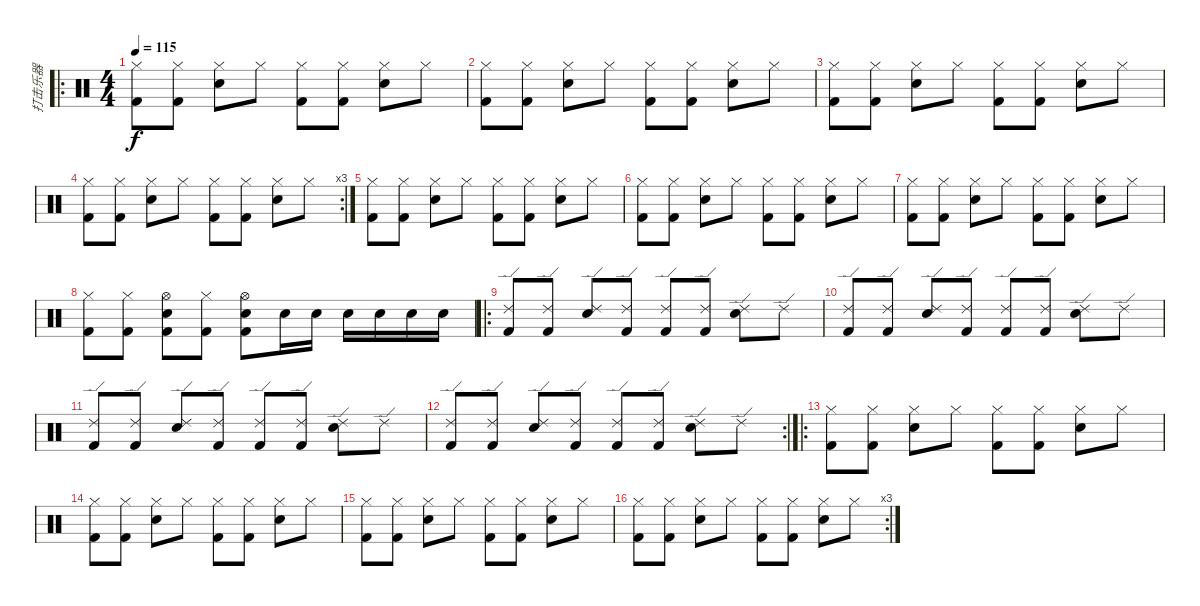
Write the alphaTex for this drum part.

\track ("打击乐器" "打击乐器") {instrument percussion}
\staff {score}
\articulation defaults
\ro
\ts (4 4)
\tempo 115
\clef neutral
\ks c
("Hi-Hat (closed)" "Kick (hit) 2").8{dy f} ("Hi-Hat (closed)" "Kick (hit) 2").8 ("Hi-Hat (closed)" "Electric Snare (hit)").8 "Hi-Hat (closed)".8 ("Hi-Hat (closed)" "Kick (hit) 2").8 ("Hi-Hat (closed)" "Kick (hit) 2").8 ("Hi-Hat (closed)" "Electric Snare (hit)").8 "Hi-Hat (closed)".8 |
("Hi-Hat (closed)" "Kick (hit) 2").8 ("Hi-Hat (closed)" "Kick (hit) 2").8 ("Hi-Hat (closed)" "Electric Snare (hit)").8 "Hi-Hat (closed)".8 ("Hi-Hat (closed)" "Kick (hit) 2").8 ("Hi-Hat (closed)" "Kick (hit) 2").8 ("Hi-Hat (closed)" "Electric Snare (hit)").8 "Hi-Hat (closed)".8 |
("Hi-Hat (closed)" "Kick (hit) 2").8 ("Hi-Hat (closed)" "Kick (hit) 2").8 ("Hi-Hat (closed)" "Electric Snare (hit)").8 "Hi-Hat (closed)".8 ("Hi-Hat (closed)" "Kick (hit) 2").8 ("Hi-Hat (closed)" "Kick (hit) 2").8 ("Hi-Hat (closed)" "Electric Snare (hit)").8 "Hi-Hat (closed)".8 |
\rc 3
("Hi-Hat (closed)" "Kick (hit) 2").8 ("Hi-Hat (closed)" "Kick (hit) 2").8 ("Hi-Hat (closed)" "Electric Snare (hit)").8 "Hi-Hat (closed)".8 ("Hi-Hat (closed)" "Kick (hit) 2").8 ("Hi-Hat (closed)" "Kick (hit) 2").8 ("Hi-Hat (closed)" "Electric Snare (hit)").8 "Hi-Hat (closed)".8 |
("Hi-Hat (closed)" "Kick (hit) 2").8 ("Hi-Hat (closed)" "Kick (hit) 2").8 ("Hi-Hat (closed)" "Electric Snare (hit)").8 "Hi-Hat (closed)".8 ("Hi-Hat (closed)" "Kick (hit) 2").8 ("Hi-Hat (closed)" "Kick (hit) 2").8 ("Hi-Hat (closed)" "Electric Snare (hit)").8 "Hi-Hat (closed)".8 |
("Hi-Hat (closed)" "Kick (hit) 2").8 ("Hi-Hat (closed)" "Kick (hit) 2").8 ("Hi-Hat (closed)" "Electric Snare (hit)").8 "Hi-Hat (closed)".8 ("Hi-Hat (closed)" "Kick (hit) 2").8 ("Hi-Hat (closed)" "Kick (hit) 2").8 ("Hi-Hat (closed)" "Electric Snare (hit)").8 "Hi-Hat (closed)".8 |
("Hi-Hat (closed)" "Kick (hit) 2").8 ("Hi-Hat (closed)" "Kick (hit) 2").8 ("Hi-Hat (closed)" "Electric Snare (hit)").8 "Hi-Hat (closed)".8 ("Hi-Hat (closed)" "Kick (hit) 2").8 ("Hi-Hat (closed)" "Kick (hit) 2").8 ("Hi-Hat (closed)" "Electric Snare (hit)").8 "Hi-Hat (closed)".8 |
("Hi-Hat (closed)" "Kick (hit) 2").8 ("Hi-Hat (closed)" "Kick (hit) 2").8 ("Hi-Hat (open)" "Electric Snare (hit)" "Kick (hit) 2").8 ("Hi-Hat (closed)" "Kick (hit) 2").8 ("Hi-Hat (open)" "Electric Snare (hit)" "Kick (hit) 2").8 "Electric Snare (hit)".16 "Electric Snare (hit)".16 "Electric Snare (hit)".16 "Electric Snare (hit)".16 "Electric Snare (hit)".16 "Electric Snare (hit)".16 |
\ro
("Ride (edge) 2" "Kick (hit) 2").8 ("Ride (edge) 2" "Kick (hit) 2").8 ("Ride (edge) 2" "Electric Snare (hit)").8 ("Ride (edge) 2" "Kick (hit) 2").8 ("Ride (edge) 2" "Kick (hit) 2").8 ("Ride (edge) 2" "Kick (hit) 2").8 ("Ride (edge) 2" "Electric Snare (hit)").8 "Ride (edge) 2".8 |
("Ride (edge) 2" "Kick (hit) 2").8 ("Ride (edge) 2" "Kick (hit) 2").8 ("Ride (edge) 2" "Electric Snare (hit)").8 ("Ride (edge) 2" "Kick (hit) 2").8 ("Ride (edge) 2" "Kick (hit) 2").8 ("Ride (edge) 2" "Kick (hit) 2").8 ("Ride (edge) 2" "Electric Snare (hit)").8 "Ride (edge) 2".8 |
("Ride (edge) 2" "Kick (hit) 2").8 ("Ride (edge) 2" "Kick (hit) 2").8 ("Ride (edge) 2" "Electric Snare (hit)").8 ("Ride (edge) 2" "Kick (hit) 2").8 ("Ride (edge) 2" "Kick (hit) 2").8 ("Ride (edge) 2" "Kick (hit) 2").8 ("Ride (edge) 2" "Electric Snare (hit)").8 "Ride (edge) 2".8 |
\rc 2
("Ride (edge) 2" "Kick (hit) 2").8 ("Ride (edge) 2" "Kick (hit) 2").8 ("Ride (edge) 2" "Electric Snare (hit)").8 ("Ride (edge) 2" "Kick (hit) 2").8 ("Ride (edge) 2" "Kick (hit) 2").8 ("Ride (edge) 2" "Kick (hit) 2").8 ("Ride (edge) 2" "Electric Snare (hit)").8 "Ride (edge) 2".8 |
\ro
("Hi-Hat (closed)" "Kick (hit) 2").8 ("Hi-Hat (closed)" "Kick (hit) 2").8 ("Hi-Hat (closed)" "Electric Snare (hit)").8 "Hi-Hat (closed)".8 ("Hi-Hat (closed)" "Kick (hit) 2").8 ("Hi-Hat (closed)" "Kick (hit) 2").8 ("Hi-Hat (closed)" "Electric Snare (hit)").8 "Hi-Hat (closed)".8 |
("Hi-Hat (closed)" "Kick (hit) 2").8 ("Hi-Hat (closed)" "Kick (hit) 2").8 ("Hi-Hat (closed)" "Electric Snare (hit)").8 "Hi-Hat (closed)".8 ("Hi-Hat (closed)" "Kick (hit) 2").8 ("Hi-Hat (closed)" "Kick (hit) 2").8 ("Hi-Hat (closed)" "Electric Snare (hit)").8 "Hi-Hat (closed)".8 |
("Hi-Hat (closed)" "Kick (hit) 2").8 ("Hi-Hat (closed)" "Kick (hit) 2").8 ("Hi-Hat (closed)" "Electric Snare (hit)").8 "Hi-Hat (closed)".8 ("Hi-Hat (closed)" "Kick (hit) 2").8 ("Hi-Hat (closed)" "Kick (hit) 2").8 ("Hi-Hat (closed)" "Electric Snare (hit)").8 "Hi-Hat (closed)".8 |
\rc 3
("Hi-Hat (closed)" "Kick (hit) 2").8 ("Hi-Hat (closed)" "Kick (hit) 2").8 ("Hi-Hat (closed)" "Electric Snare (hit)").8 "Hi-Hat (closed)".8 ("Hi-Hat (closed)" "Kick (hit) 2").8 ("Hi-Hat (closed)" "Kick (hit) 2").8 ("Hi-Hat (closed)" "Electric Snare (hit)").8 "Hi-Hat (closed)".8
